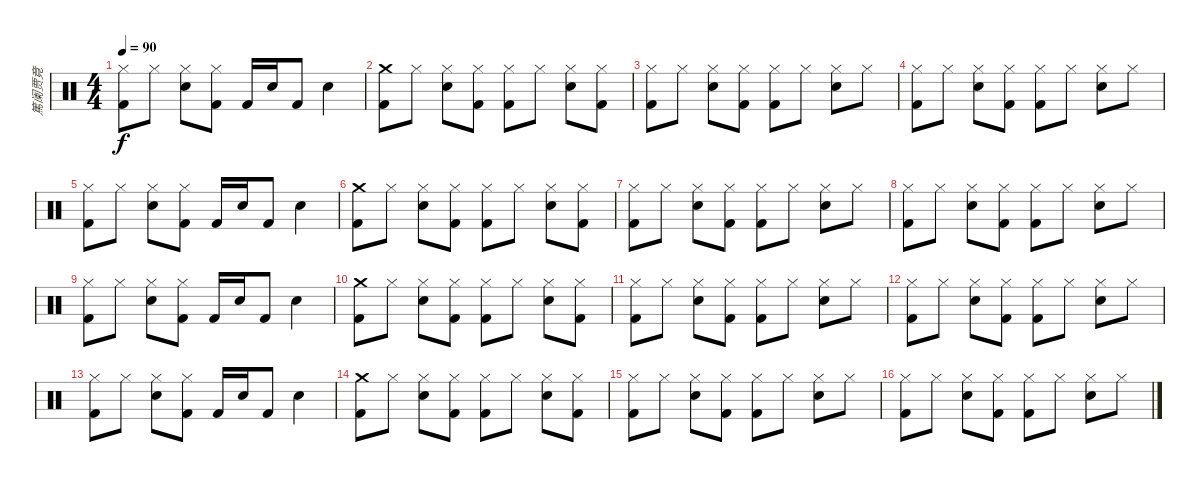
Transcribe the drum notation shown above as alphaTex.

\track ("篤阑贾竟" "篤阑贾竟") {instrument percussion}
\staff {score}
\articulation defaults
\ts (4 4)
\tempo 90
\clef neutral
\ks c
("Hi-Hat (closed)" "Kick (hit) 2").8{dy f} "Hi-Hat (closed)".8 ("Hi-Hat (closed)" "Snare (hit) 2").8 ("Hi-Hat (closed)" "Kick (hit) 2").8 "Kick (hit) 2".16 "Snare (hit) 2".16 "Kick (hit) 2".8 "Snare (hit) 2".4 |
("Crash medium (hit)" "Kick (hit) 2").8 "Hi-Hat (closed)".8 ("Hi-Hat (closed)" "Snare (hit) 2").8 ("Hi-Hat (closed)" "Kick (hit) 2").8 ("Hi-Hat (closed)" "Kick (hit) 2").8 "Hi-Hat (closed)".8 ("Hi-Hat (closed)" "Snare (hit) 2").8 ("Hi-Hat (closed)" "Kick (hit) 2").8 |
("Hi-Hat (closed)" "Kick (hit) 2").8 "Hi-Hat (closed)".8 ("Hi-Hat (closed)" "Snare (hit) 2").8 ("Hi-Hat (closed)" "Kick (hit) 2").8 ("Hi-Hat (closed)" "Kick (hit) 2").8 "Hi-Hat (closed)".8 ("Hi-Hat (closed)" "Snare (hit) 2").8 "Hi-Hat (closed)".8 |
("Hi-Hat (closed)" "Kick (hit) 2").8 "Hi-Hat (closed)".8 ("Hi-Hat (closed)" "Snare (hit) 2").8 ("Hi-Hat (closed)" "Kick (hit) 2").8 ("Hi-Hat (closed)" "Kick (hit) 2").8 "Hi-Hat (closed)".8 ("Hi-Hat (closed)" "Snare (hit) 2").8 "Hi-Hat (closed)".8 |
("Hi-Hat (closed)" "Kick (hit) 2").8 "Hi-Hat (closed)".8 ("Hi-Hat (closed)" "Snare (hit) 2").8 ("Hi-Hat (closed)" "Kick (hit) 2").8 "Kick (hit) 2".16 "Snare (hit) 2".16 "Kick (hit) 2".8 "Snare (hit) 2".4 |
("Crash medium (hit)" "Kick (hit) 2").8 "Hi-Hat (closed)".8 ("Hi-Hat (closed)" "Snare (hit) 2").8 ("Hi-Hat (closed)" "Kick (hit) 2").8 ("Hi-Hat (closed)" "Kick (hit) 2").8 "Hi-Hat (closed)".8 ("Hi-Hat (closed)" "Snare (hit) 2").8 ("Hi-Hat (closed)" "Kick (hit) 2").8 |
("Hi-Hat (closed)" "Kick (hit) 2").8 "Hi-Hat (closed)".8 ("Hi-Hat (closed)" "Snare (hit) 2").8 ("Hi-Hat (closed)" "Kick (hit) 2").8 ("Hi-Hat (closed)" "Kick (hit) 2").8 "Hi-Hat (closed)".8 ("Hi-Hat (closed)" "Snare (hit) 2").8 "Hi-Hat (closed)".8 |
("Hi-Hat (closed)" "Kick (hit) 2").8 "Hi-Hat (closed)".8 ("Hi-Hat (closed)" "Snare (hit) 2").8 ("Hi-Hat (closed)" "Kick (hit) 2").8 ("Hi-Hat (closed)" "Kick (hit) 2").8 "Hi-Hat (closed)".8 ("Hi-Hat (closed)" "Snare (hit) 2").8 "Hi-Hat (closed)".8 |
("Hi-Hat (closed)" "Kick (hit) 2").8 "Hi-Hat (closed)".8 ("Hi-Hat (closed)" "Snare (hit) 2").8 ("Hi-Hat (closed)" "Kick (hit) 2").8 "Kick (hit) 2".16 "Snare (hit) 2".16 "Kick (hit) 2".8 "Snare (hit) 2".4 |
("Crash medium (hit)" "Kick (hit) 2").8 "Hi-Hat (closed)".8 ("Hi-Hat (closed)" "Snare (hit) 2").8 ("Hi-Hat (closed)" "Kick (hit) 2").8 ("Hi-Hat (closed)" "Kick (hit) 2").8 "Hi-Hat (closed)".8 ("Hi-Hat (closed)" "Snare (hit) 2").8 ("Hi-Hat (closed)" "Kick (hit) 2").8 |
("Hi-Hat (closed)" "Kick (hit) 2").8 "Hi-Hat (closed)".8 ("Hi-Hat (closed)" "Snare (hit) 2").8 ("Hi-Hat (closed)" "Kick (hit) 2").8 ("Hi-Hat (closed)" "Kick (hit) 2").8 "Hi-Hat (closed)".8 ("Hi-Hat (closed)" "Snare (hit) 2").8 "Hi-Hat (closed)".8 |
("Hi-Hat (closed)" "Kick (hit) 2").8 "Hi-Hat (closed)".8 ("Hi-Hat (closed)" "Snare (hit) 2").8 ("Hi-Hat (closed)" "Kick (hit) 2").8 ("Hi-Hat (closed)" "Kick (hit) 2").8 "Hi-Hat (closed)".8 ("Hi-Hat (closed)" "Snare (hit) 2").8 "Hi-Hat (closed)".8 |
("Hi-Hat (closed)" "Kick (hit) 2").8 "Hi-Hat (closed)".8 ("Hi-Hat (closed)" "Snare (hit) 2").8 ("Hi-Hat (closed)" "Kick (hit) 2").8 "Kick (hit) 2".16 "Snare (hit) 2".16 "Kick (hit) 2".8 "Snare (hit) 2".4 |
("Crash medium (hit)" "Kick (hit) 2").8 "Hi-Hat (closed)".8 ("Hi-Hat (closed)" "Snare (hit) 2").8 ("Hi-Hat (closed)" "Kick (hit) 2").8 ("Hi-Hat (closed)" "Kick (hit) 2").8 "Hi-Hat (closed)".8 ("Hi-Hat (closed)" "Snare (hit) 2").8 ("Hi-Hat (closed)" "Kick (hit) 2").8 |
("Hi-Hat (closed)" "Kick (hit) 2").8 "Hi-Hat (closed)".8 ("Hi-Hat (closed)" "Snare (hit) 2").8 ("Hi-Hat (closed)" "Kick (hit) 2").8 ("Hi-Hat (closed)" "Kick (hit) 2").8 "Hi-Hat (closed)".8 ("Hi-Hat (closed)" "Snare (hit) 2").8 "Hi-Hat (closed)".8 |
("Hi-Hat (closed)" "Kick (hit) 2").8 "Hi-Hat (closed)".8 ("Hi-Hat (closed)" "Snare (hit) 2").8 ("Hi-Hat (closed)" "Kick (hit) 2").8 ("Hi-Hat (closed)" "Kick (hit) 2").8 "Hi-Hat (closed)".8 ("Hi-Hat (closed)" "Snare (hit) 2").8 "Hi-Hat (closed)".8
